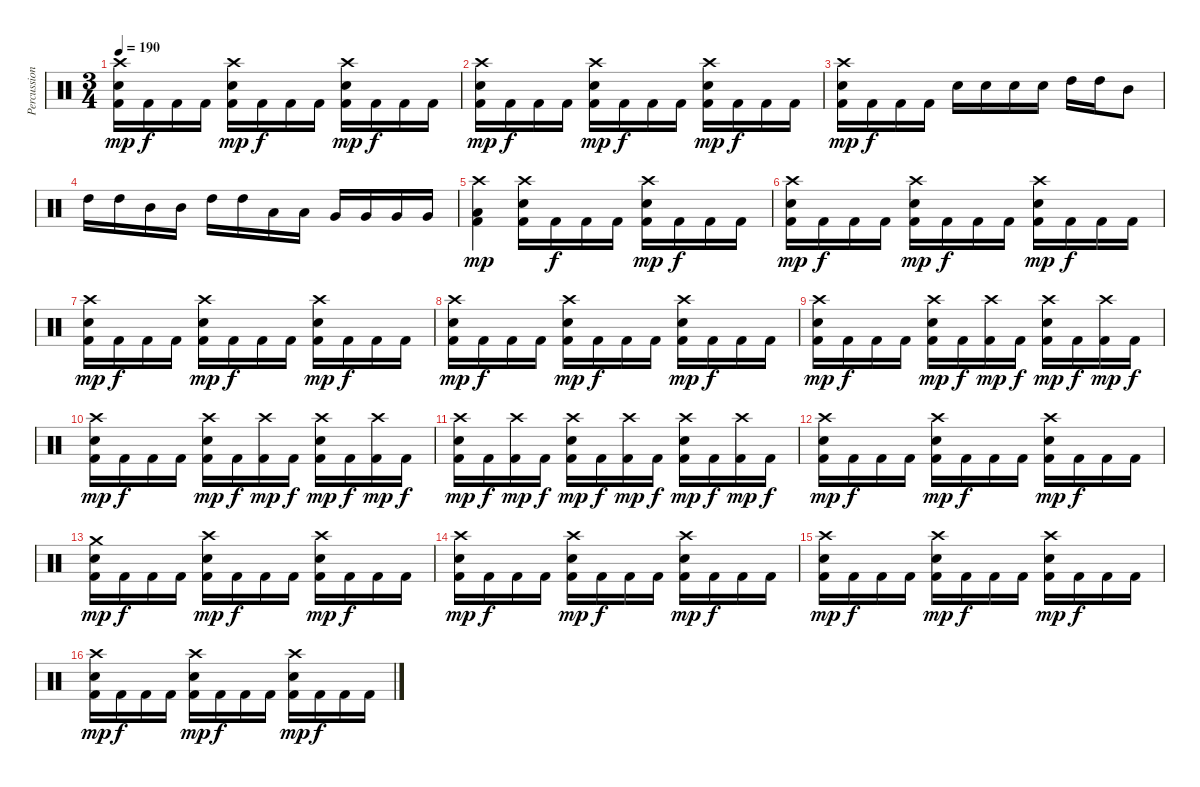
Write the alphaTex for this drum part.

\track ("Percussion" "Percussion") {instrument percussion}
\staff {score}
\articulation defaults
\ts (3 4)
\tempo 190
\clef neutral
\ks c
("Crash high (hit)" "Electric Snare (hit)" "Kick (hit) 2").16{dy mp} "Kick (hit) 2".16{dy f} "Kick (hit) 2".16 "Kick (hit) 2".16 ("Crash high (hit)" "Electric Snare (hit)" "Kick (hit) 2").16{dy mp} "Kick (hit) 2".16{dy f} "Kick (hit) 2".16 "Kick (hit) 2".16 ("Crash high (hit)" "Electric Snare (hit)" "Kick (hit) 2").16{dy mp} "Kick (hit) 2".16{dy f} "Kick (hit) 2".16 "Kick (hit) 2".16 |
("Crash high (hit)" "Electric Snare (hit)" "Kick (hit) 2").16{dy mp} "Kick (hit) 2".16{dy f} "Kick (hit) 2".16 "Kick (hit) 2".16 ("Crash high (hit)" "Electric Snare (hit)" "Kick (hit) 2").16{dy mp} "Kick (hit) 2".16{dy f} "Kick (hit) 2".16 "Kick (hit) 2".16 ("Crash high (hit)" "Electric Snare (hit)" "Kick (hit) 2").16{dy mp} "Kick (hit) 2".16{dy f} "Kick (hit) 2".16 "Kick (hit) 2".16 |
("Crash high (hit)" "Electric Snare (hit)" "Kick (hit) 2").16{dy mp} "Kick (hit) 2".16{dy f} "Kick (hit) 2".16 "Kick (hit) 2".16 "Electric Snare (hit)".16 "Electric Snare (hit)".16 "Electric Snare (hit)".16 "Electric Snare (hit)".16 "High Tom (hit)".16 "High Tom (hit)".16 "Mid Tom (hit)".8 |
"High Tom (hit)".16 "High Tom (hit)".16 "Mid Tom (hit)".16 "Mid Tom (hit)".16 "High Tom (hit)".16 "High Tom (hit)".16 "Low Tom (hit)".16 "Low Tom (hit)".16 "Very Low Tom (hit)".16 "Very Low Tom (hit)".16 "Very Low Tom (hit)".16 "Very Low Tom (hit)".16 |
("Crash high (hit)" "Low Floor Tom (hit)" "Kick (hit) 2").4{dy mp} ("Crash high (hit)" "Electric Snare (hit)" "Kick (hit) 2").16 "Kick (hit) 2".16{dy f} "Kick (hit) 2".16 "Kick (hit) 2".16 ("Crash high (hit)" "Electric Snare (hit)" "Kick (hit) 2").16{dy mp} "Kick (hit) 2".16{dy f} "Kick (hit) 2".16 "Kick (hit) 2".16 |
("Crash high (hit)" "Electric Snare (hit)" "Kick (hit) 2").16{dy mp} "Kick (hit) 2".16{dy f} "Kick (hit) 2".16 "Kick (hit) 2".16 ("Crash high (hit)" "Electric Snare (hit)" "Kick (hit) 2").16{dy mp} "Kick (hit) 2".16{dy f} "Kick (hit) 2".16 "Kick (hit) 2".16 ("Crash high (hit)" "Electric Snare (hit)" "Kick (hit) 2").16{dy mp} "Kick (hit) 2".16{dy f} "Kick (hit) 2".16 "Kick (hit) 2".16 |
("Crash high (hit)" "Electric Snare (hit)" "Kick (hit) 2").16{dy mp} "Kick (hit) 2".16{dy f} "Kick (hit) 2".16 "Kick (hit) 2".16 ("Crash high (hit)" "Electric Snare (hit)" "Kick (hit) 2").16{dy mp} "Kick (hit) 2".16{dy f} "Kick (hit) 2".16 "Kick (hit) 2".16 ("Crash high (hit)" "Electric Snare (hit)" "Kick (hit) 2").16{dy mp} "Kick (hit) 2".16{dy f} "Kick (hit) 2".16 "Kick (hit) 2".16 |
("Crash high (hit)" "Electric Snare (hit)" "Kick (hit) 2").16{dy mp} "Kick (hit) 2".16{dy f} "Kick (hit) 2".16 "Kick (hit) 2".16 ("Crash high (hit)" "Electric Snare (hit)" "Kick (hit) 2").16{dy mp} "Kick (hit) 2".16{dy f} "Kick (hit) 2".16 "Kick (hit) 2".16 ("Crash high (hit)" "Electric Snare (hit)" "Kick (hit) 2").16{dy mp} "Kick (hit) 2".16{dy f} "Kick (hit) 2".16 "Kick (hit) 2".16 |
("Crash high (hit)" "Electric Snare (hit)" "Kick (hit) 2").16{dy mp} "Kick (hit) 2".16{dy f} "Kick (hit) 2".16 "Kick (hit) 2".16 ("Crash high (hit)" "Electric Snare (hit)" "Kick (hit) 2").16{dy mp} "Kick (hit) 2".16{dy f} ("Crash high (hit)" "Kick (hit) 2").16{dy mp} "Kick (hit) 2".16{dy f} ("Crash high (hit)" "Electric Snare (hit)" "Kick (hit) 2").16{dy mp} "Kick (hit) 2".16{dy f} ("Crash high (hit)" "Kick (hit) 2").16{dy mp} "Kick (hit) 2".16{dy f} |
("Crash high (hit)" "Electric Snare (hit)" "Kick (hit) 2").16{dy mp} "Kick (hit) 2".16{dy f} "Kick (hit) 2".16 "Kick (hit) 2".16 ("Crash high (hit)" "Electric Snare (hit)" "Kick (hit) 2").16{dy mp} "Kick (hit) 2".16{dy f} ("Crash high (hit)" "Kick (hit) 2").16{dy mp} "Kick (hit) 2".16{dy f} ("Crash high (hit)" "Electric Snare (hit)" "Kick (hit) 2").16{dy mp} "Kick (hit) 2".16{dy f} ("Crash high (hit)" "Kick (hit) 2").16{dy mp} "Kick (hit) 2".16{dy f} |
("Crash high (hit)" "Electric Snare (hit)" "Kick (hit) 2").16{dy mp} "Kick (hit) 2".16{dy f} ("Crash high (hit)" "Kick (hit) 2").16{dy mp} "Kick (hit) 2".16{dy f} ("Crash high (hit)" "Electric Snare (hit)" "Kick (hit) 2").16{dy mp} "Kick (hit) 2".16{dy f} ("Crash high (hit)" "Kick (hit) 2").16{dy mp} "Kick (hit) 2".16{dy f} ("Crash high (hit)" "Electric Snare (hit)" "Kick (hit) 2").16{dy mp} "Kick (hit) 2".16{dy f} ("Crash high (hit)" "Kick (hit) 2").16{dy mp} "Kick (hit) 2".16{dy f} |
("Crash high (hit)" "Electric Snare (hit)" "Kick (hit) 2").16{dy mp} "Kick (hit) 2".16{dy f} "Kick (hit) 2".16 "Kick (hit) 2".16 ("Crash high (hit)" "Electric Snare (hit)" "Kick (hit) 2").16{dy mp} "Kick (hit) 2".16{dy f} "Kick (hit) 2".16 "Kick (hit) 2".16 ("Crash high (hit)" "Electric Snare (hit)" "Kick (hit) 2").16{dy mp} "Kick (hit) 2".16{dy f} "Kick (hit) 2".16 "Kick (hit) 2".16 |
("Crash medium (hit)" "Electric Snare (hit)" "Kick (hit) 2").16{dy mp} "Kick (hit) 2".16{dy f} "Kick (hit) 2".16 "Kick (hit) 2".16 ("Crash high (hit)" "Electric Snare (hit)" "Kick (hit) 2").16{dy mp} "Kick (hit) 2".16{dy f} "Kick (hit) 2".16 "Kick (hit) 2".16 ("Crash high (hit)" "Electric Snare (hit)" "Kick (hit) 2").16{dy mp} "Kick (hit) 2".16{dy f} "Kick (hit) 2".16 "Kick (hit) 2".16 |
("Crash high (hit)" "Electric Snare (hit)" "Kick (hit) 2").16{dy mp} "Kick (hit) 2".16{dy f} "Kick (hit) 2".16 "Kick (hit) 2".16 ("Crash high (hit)" "Electric Snare (hit)" "Kick (hit) 2").16{dy mp} "Kick (hit) 2".16{dy f} "Kick (hit) 2".16 "Kick (hit) 2".16 ("Crash high (hit)" "Electric Snare (hit)" "Kick (hit) 2").16{dy mp} "Kick (hit) 2".16{dy f} "Kick (hit) 2".16 "Kick (hit) 2".16 |
("Crash high (hit)" "Electric Snare (hit)" "Kick (hit) 2").16{dy mp} "Kick (hit) 2".16{dy f} "Kick (hit) 2".16 "Kick (hit) 2".16 ("Crash high (hit)" "Electric Snare (hit)" "Kick (hit) 2").16{dy mp} "Kick (hit) 2".16{dy f} "Kick (hit) 2".16 "Kick (hit) 2".16 ("Crash high (hit)" "Electric Snare (hit)" "Kick (hit) 2").16{dy mp} "Kick (hit) 2".16{dy f} "Kick (hit) 2".16 "Kick (hit) 2".16 |
("Crash high (hit)" "Electric Snare (hit)" "Kick (hit) 2").16{dy mp} "Kick (hit) 2".16{dy f} "Kick (hit) 2".16 "Kick (hit) 2".16 ("Crash high (hit)" "Electric Snare (hit)" "Kick (hit) 2").16{dy mp} "Kick (hit) 2".16{dy f} "Kick (hit) 2".16 "Kick (hit) 2".16 ("Crash high (hit)" "Electric Snare (hit)" "Kick (hit) 2").16{dy mp} "Kick (hit) 2".16{dy f} "Kick (hit) 2".16 "Kick (hit) 2".16
